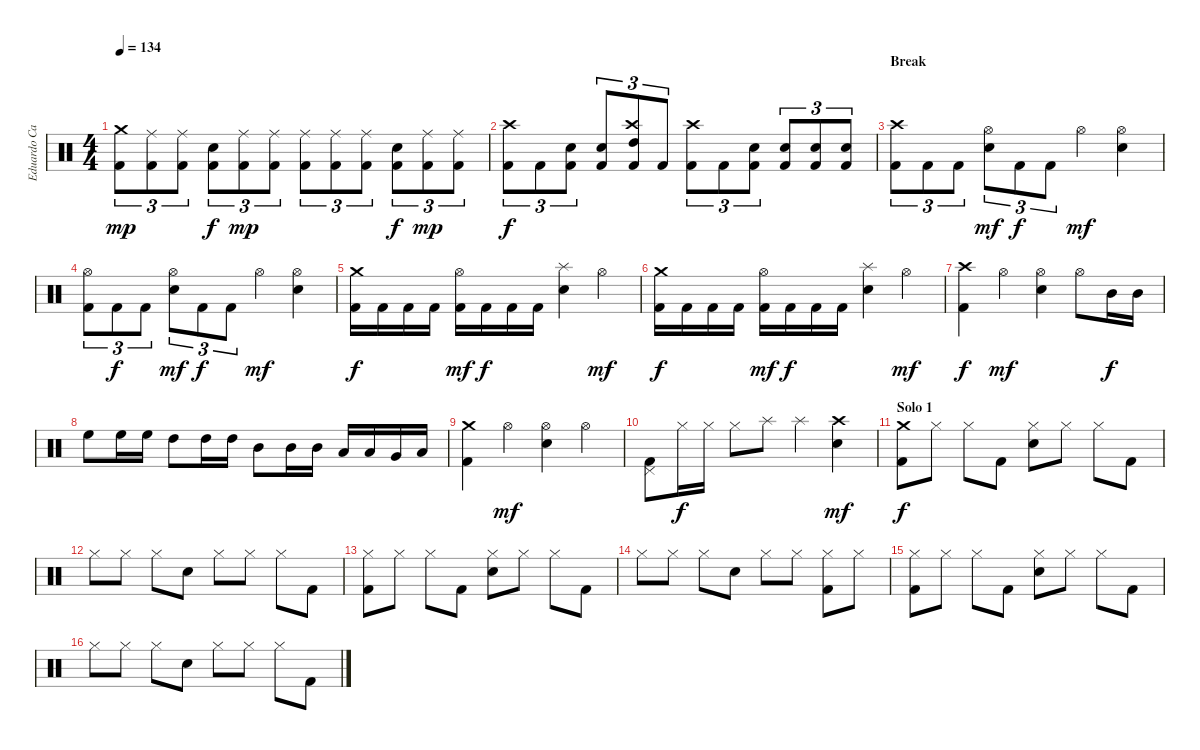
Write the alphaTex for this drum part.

\track ("Eduardo Carrillo" "Eduardo Ca") {instrument percussion}
\staff {score}
\articulation defaults
\ts (4 4)
\tempo 134
\clef neutral
\ks c
("Kick (hit) 2" "Crash medium (hit)").8{tu (3 2) dy mp} ("Kick (hit) 2" "Ride (middle)").8{tu (3 2)} ("Kick (hit) 2" "Ride (middle)").8{tu (3 2)} ("Kick (hit) 2" "Snare (hit) 2").8{tu (3 2) dy f} ("Kick (hit) 2" "Ride (middle)").8{tu (3 2) dy mp} ("Kick (hit) 2" "Ride (middle)").8{tu (3 2)} ("Kick (hit) 2" "Ride (middle)").8{tu (3 2)} ("Kick (hit) 2" "Ride (middle)").8{tu (3 2)} ("Kick (hit) 2" "Ride (middle)").8{tu (3 2)} ("Kick (hit) 2" "Snare (hit) 2").8{tu (3 2) dy f} ("Kick (hit) 2" "Ride (middle)").8{tu (3 2) dy mp} ("Kick (hit) 2" "Ride (middle)").8{tu (3 2)} |
("Kick (hit) 2" "Crash high (hit)").8{tu (3 2) dy f} "Kick (hit) 2".8{tu (3 2)} ("Kick (hit) 2" "Snare (hit) 2").8{tu (3 2)} ("Kick (hit) 2" "Snare (hit) 2").8{tu (3 2)} ("Kick (hit) 2" "Crash high (hit)" "High Tom (hit)").8{tu (3 2)} "Kick (hit) 2".8{tu (3 2)} ("Kick (hit) 2" "Crash high (hit)").8{tu (3 2)} "Kick (hit) 2".8{tu (3 2)} ("Kick (hit) 2" "Snare (hit) 2").8{tu (3 2)} ("Kick (hit) 2" "Snare (hit) 2").8{tu (3 2)} ("Kick (hit) 2" "Snare (hit) 2").8{tu (3 2)} ("Kick (hit) 2" "Snare (hit) 2").8{tu (3 2)} |
\section ("" "Break")
("Kick (hit) 2" "Crash high (hit)").8{tu (3 2)} "Kick (hit) 2".8{tu (3 2)} "Kick (hit) 2".8{tu (3 2)} ("Hi-Hat (open)" "Snare (hit) 2").8{tu (3 2) dy mf} "Kick (hit) 2".8{tu (3 2) dy f} "Kick (hit) 2".8{tu (3 2)} "Hi-Hat (open)".4{dy mf} ("Hi-Hat (open)" "Snare (hit) 2").4 |
("Kick (hit) 2" "Hi-Hat (open)").8{tu (3 2)} "Kick (hit) 2".8{tu (3 2) dy f} "Kick (hit) 2".8{tu (3 2)} ("Hi-Hat (open)" "Snare (hit) 2").8{tu (3 2) dy mf} "Kick (hit) 2".8{tu (3 2) dy f} "Kick (hit) 2".8{tu (3 2)} "Hi-Hat (open)".4{dy mf} ("Hi-Hat (open)" "Snare (hit) 2").4 |
("Kick (hit) 2" "Crash medium (hit)").16{dy f} "Kick (hit) 2".16 "Kick (hit) 2".16 "Kick (hit) 2".16 ("Kick (hit) 2" "Hi-Hat (open)").16{dy mf} "Kick (hit) 2".16{dy f} "Kick (hit) 2".16 "Kick (hit) 2".16 ("Splash (hit)" "Snare (hit) 2").4 "Hi-Hat (open)".4{dy mf} |
("Kick (hit) 2" "Crash medium (hit)").16{dy f} "Kick (hit) 2".16 "Kick (hit) 2".16 "Kick (hit) 2".16 ("Kick (hit) 2" "Hi-Hat (open)").16{dy mf} "Kick (hit) 2".16{dy f} "Kick (hit) 2".16 "Kick (hit) 2".16 ("Splash (hit)" "Snare (hit) 2").4 "Hi-Hat (open)".4{dy mf} |
("Kick (hit) 2" "Crash high (hit)").4{dy f} "Hi-Hat (open)".4{dy mf} ("Hi-Hat (open)" "Snare (hit) 2").4 "Hi-Hat (open)".8 "Mid Tom (hit)".16{dy f} "Mid Tom (hit)".16 |
"High Floor Tom (hit)".8 "High Floor Tom (hit)".16 "High Floor Tom (hit)".16 "High Tom (hit)".8 "High Tom (hit)".16 "High Tom (hit)".16 "Mid Tom (hit)".8 "Mid Tom (hit)".16 "Mid Tom (hit)".16 "Low Tom (hit)".16 "Low Tom (hit)".16 "Very Low Tom (hit)".16 "Low Floor Tom (hit)".16 |
("Kick (hit) 2" "Crash medium (hit)").4 "Hi-Hat (open)".4{dy mf} ("Hi-Hat (open)" "Snare (hit) 2").4 "Hi-Hat (open)".4 |
("Kick (hit) 2" "Pedal Hi-Hat (hit)").8 "Hi-Hat (closed)".16{dy f} "Hi-Hat (closed)".16 "Hi-Hat (closed)".8 "Splash (hit)".8 "Splash (hit)".4 ("Crash high (hit)" "Snare (hit) 2").4{dy mf} |
\section ("" "Solo 1")
("Kick (hit) 2" "Crash medium (hit)").8{dy f} "Hi-Hat (closed)".8 "Hi-Hat (closed)".8 "Kick (hit) 2".8 ("Hi-Hat (closed)" "Snare (hit) 2").8 "Hi-Hat (closed)".8 "Hi-Hat (closed)".8 "Kick (hit) 2".8 |
"Hi-Hat (closed)".8 "Hi-Hat (closed)".8 "Hi-Hat (closed)".8 "Snare (hit) 2".8 "Hi-Hat (closed)".8 "Hi-Hat (closed)".8 "Hi-Hat (closed)".8 "Kick (hit) 2".8 |
("Kick (hit) 2" "Hi-Hat (closed)").8 "Hi-Hat (closed)".8 "Hi-Hat (closed)".8 "Kick (hit) 2".8 ("Hi-Hat (closed)" "Snare (hit) 2").8 "Hi-Hat (closed)".8 "Hi-Hat (closed)".8 "Kick (hit) 2".8 |
"Hi-Hat (closed)".8 "Hi-Hat (closed)".8 "Hi-Hat (closed)".8 "Snare (hit) 2".8 "Hi-Hat (closed)".8 "Hi-Hat (closed)".8 ("Kick (hit) 2" "Hi-Hat (closed)").8 "Hi-Hat (closed)".8 |
("Kick (hit) 2" "Hi-Hat (closed)").8 "Hi-Hat (closed)".8 "Hi-Hat (closed)".8 "Kick (hit) 2".8 ("Hi-Hat (closed)" "Snare (hit) 2").8 "Hi-Hat (closed)".8 "Hi-Hat (closed)".8 "Kick (hit) 2".8 |
"Hi-Hat (closed)".8 "Hi-Hat (closed)".8 "Hi-Hat (closed)".8 "Snare (hit) 2".8 "Hi-Hat (closed)".8 "Hi-Hat (closed)".8 "Hi-Hat (closed)".8 "Kick (hit) 2".8
